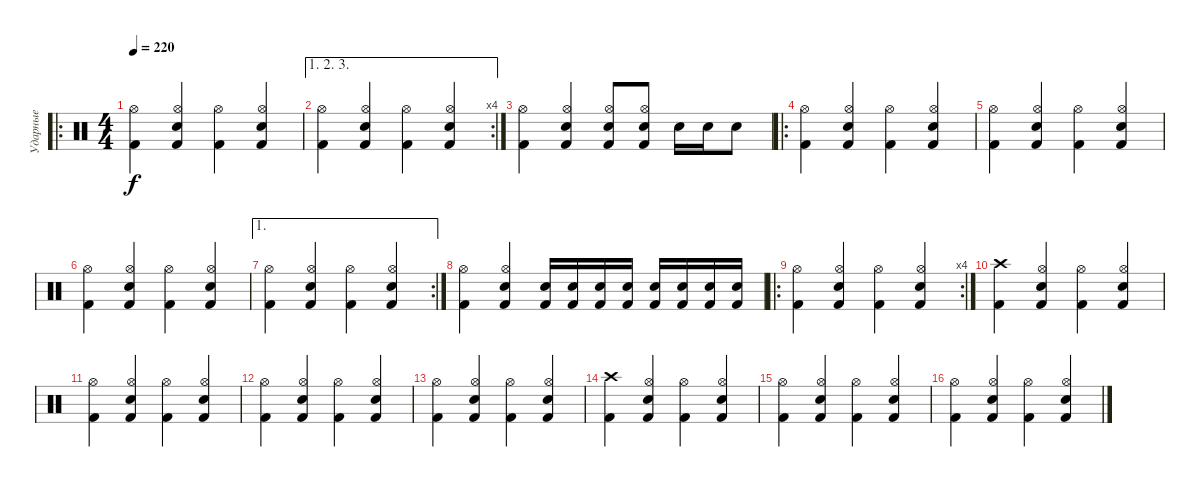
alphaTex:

\track ("Ударные" "Ударные") {instrument percussion}
\staff
\articulation defaults
\ro
\ts (4 4)
\tempo 220
\clef neutral
\ks c
("Kick (hit) 2" "Hi-Hat (open)").4{dy f} ("Kick (hit) 2" "Snare (hit) 2" "Hi-Hat (open)").4 ("Kick (hit) 2" "Hi-Hat (open)").4 ("Kick (hit) 2" "Snare (hit) 2" "Hi-Hat (open)").4 |
\ae (1 2 3)
\rc 4
("Kick (hit) 2" "Hi-Hat (open)").4 ("Kick (hit) 2" "Snare (hit) 2" "Hi-Hat (open)").4 ("Kick (hit) 2" "Hi-Hat (open)").4 ("Kick (hit) 2" "Snare (hit) 2" "Hi-Hat (open)").4 |
("Kick (hit) 2" "Hi-Hat (open)").4 ("Kick (hit) 2" "Snare (hit) 2" "Hi-Hat (open)").4 ("Kick (hit) 2" "Snare (hit) 2" "Hi-Hat (open)").8 ("Kick (hit) 2" "Snare (hit) 2" "Hi-Hat (open)").8 "Snare (hit) 2".16 "Snare (hit) 2".16 "Snare (hit) 2".8 |
\ro
("Kick (hit) 2" "Hi-Hat (open)").4 ("Kick (hit) 2" "Snare (hit) 2" "Hi-Hat (open)").4 ("Kick (hit) 2" "Hi-Hat (open)").4 ("Kick (hit) 2" "Snare (hit) 2" "Hi-Hat (open)").4 |
("Kick (hit) 2" "Hi-Hat (open)").4 ("Kick (hit) 2" "Snare (hit) 2" "Hi-Hat (open)").4 ("Kick (hit) 2" "Hi-Hat (open)").4 ("Kick (hit) 2" "Snare (hit) 2" "Hi-Hat (open)").4 |
("Kick (hit) 2" "Hi-Hat (open)").4 ("Kick (hit) 2" "Snare (hit) 2" "Hi-Hat (open)").4 ("Kick (hit) 2" "Hi-Hat (open)").4 ("Kick (hit) 2" "Snare (hit) 2" "Hi-Hat (open)").4 |
\ae 1
\rc 2
("Kick (hit) 2" "Hi-Hat (open)").4 ("Kick (hit) 2" "Snare (hit) 2" "Hi-Hat (open)").4 ("Kick (hit) 2" "Hi-Hat (open)").4 ("Kick (hit) 2" "Snare (hit) 2" "Hi-Hat (open)").4 |
("Kick (hit) 2" "Hi-Hat (open)").4 ("Kick (hit) 2" "Snare (hit) 2" "Hi-Hat (open)").4 ("Kick (hit) 2" "Snare (hit) 2").16 ("Kick (hit) 2" "Snare (hit) 2").16 ("Kick (hit) 2" "Snare (hit) 2").16 ("Kick (hit) 2" "Snare (hit) 2").16 ("Kick (hit) 2" "Snare (hit) 2").16 ("Kick (hit) 2" "Snare (hit) 2").16 ("Kick (hit) 2" "Snare (hit) 2").16 ("Kick (hit) 2" "Snare (hit) 2").16 |
\ro
\rc 4
("Kick (hit) 2" "Hi-Hat (open)").4 ("Kick (hit) 2" "Snare (hit) 2" "Hi-Hat (open)").4 ("Kick (hit) 2" "Hi-Hat (open)").4 ("Kick (hit) 2" "Snare (hit) 2" "Hi-Hat (open)").4 |
("Kick (hit) 2" "Crash high (hit)").4 ("Kick (hit) 2" "Snare (hit) 2" "Hi-Hat (open)").4 ("Kick (hit) 2" "Hi-Hat (open)").4 ("Kick (hit) 2" "Snare (hit) 2" "Hi-Hat (open)").4 |
("Kick (hit) 2" "Hi-Hat (open)").4 ("Kick (hit) 2" "Snare (hit) 2" "Hi-Hat (open)").4 ("Kick (hit) 2" "Hi-Hat (open)").4 ("Kick (hit) 2" "Snare (hit) 2" "Hi-Hat (open)").4 |
("Kick (hit) 2" "Hi-Hat (open)").4 ("Kick (hit) 2" "Snare (hit) 2" "Hi-Hat (open)").4 ("Kick (hit) 2" "Hi-Hat (open)").4 ("Kick (hit) 2" "Snare (hit) 2" "Hi-Hat (open)").4 |
("Kick (hit) 2" "Hi-Hat (open)").4 ("Kick (hit) 2" "Snare (hit) 2" "Hi-Hat (open)").4 ("Kick (hit) 2" "Hi-Hat (open)").4 ("Kick (hit) 2" "Snare (hit) 2" "Hi-Hat (open)").4 |
("Kick (hit) 2" "Crash high (hit)").4 ("Kick (hit) 2" "Snare (hit) 2" "Hi-Hat (open)").4 ("Kick (hit) 2" "Hi-Hat (open)").4 ("Kick (hit) 2" "Snare (hit) 2" "Hi-Hat (open)").4 |
("Kick (hit) 2" "Hi-Hat (open)").4 ("Kick (hit) 2" "Snare (hit) 2" "Hi-Hat (open)").4 ("Kick (hit) 2" "Hi-Hat (open)").4 ("Kick (hit) 2" "Snare (hit) 2" "Hi-Hat (open)").4 |
("Kick (hit) 2" "Hi-Hat (open)").4 ("Kick (hit) 2" "Snare (hit) 2" "Hi-Hat (open)").4 ("Kick (hit) 2" "Hi-Hat (open)").4 ("Kick (hit) 2" "Snare (hit) 2" "Hi-Hat (open)").4
